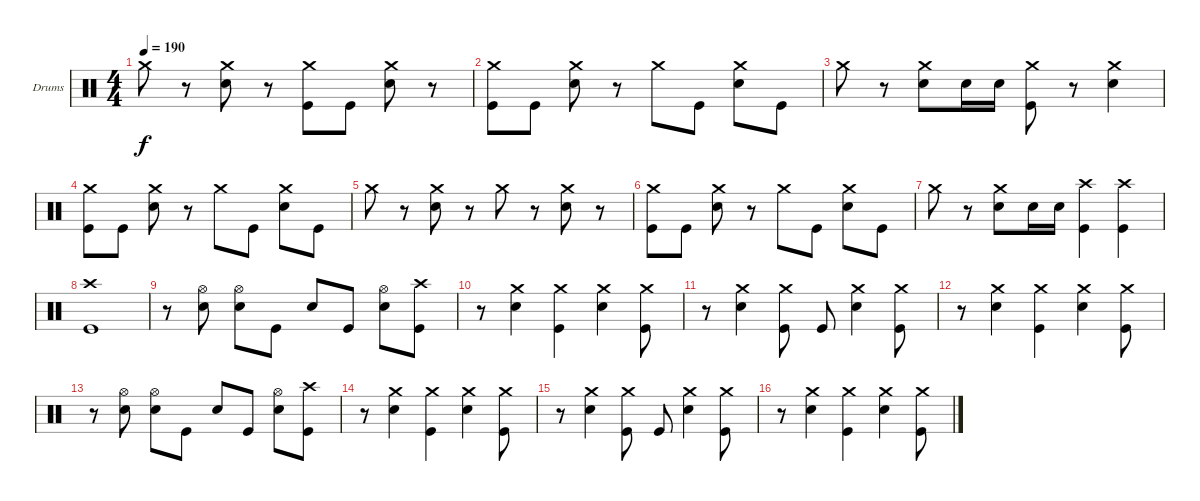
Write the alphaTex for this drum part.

\bracketExtendMode groupsimilarinstruments
\firstSystemTrackNameOrientation horizontal
\otherSystemsTrackNameOrientation horizontal
\track ("Drumkit" "Drums") {instrument percussion}
\staff {score}
\articulation defaults
\ts (4 4)
\tempo 190
\clef neutral
\scale
0.333333
\ks c "Crash medium (hit)".8{dy f}
r.8 ("Snare (hit) 2" "Crash medium (hit)").8 r.8 ("Crash medium (hit)" "Kick (hit)").8 "Kick (hit)".8 ("Snare (hit) 2" "Crash medium (hit)").8 r.8 |
\scale
0.333333 ("Kick (hit)" "Crash medium (hit)").8 "Kick (hit)".8 ("Snare (hit) 2" "Crash medium (hit)").8 r.8 "Crash medium (hit)".8 "Kick (hit)".8 ("Snare (hit) 2" "Crash medium (hit)").8 "Kick (hit)".8 |
\scale
0.333333 "Crash medium (hit)".8 r.8 ("Snare (hit) 2" "Crash medium (hit)").8 "Snare (hit) 2".16 "Snare (hit) 2".16 ("Crash medium (hit)" "Kick (hit)").8 r.8 ("Snare (hit) 2" "Crash medium (hit)").4 |
\scale
0.333333 ("Kick (hit)" "Crash medium (hit)").8 "Kick (hit)".8 ("Snare (hit) 2" "Crash medium (hit)").8 r.8 "Crash medium (hit)".8 "Kick (hit)".8 ("Snare (hit) 2" "Crash medium (hit)").8 "Kick (hit)".8 |
\scale
0.333333 "Crash medium (hit)".8 r.8 ("Snare (hit) 2" "Crash medium (hit)").8 r.8 "Crash medium (hit)".8 r.8 ("Snare (hit) 2" "Crash medium (hit)").8 r.8 |
\scale
0.333333 ("Kick (hit)" "Crash medium (hit)").8 "Kick (hit)".8 ("Snare (hit) 2" "Crash medium (hit)").8 r.8 "Crash medium (hit)".8 "Kick (hit)".8 ("Snare (hit) 2" "Crash medium (hit)").8 "Kick (hit)".8 |
\scale
0.333333 "Crash medium (hit)".8 r.8 ("Snare (hit) 2" "Crash medium (hit)").8 "Snare (hit) 2".16 "Snare (hit) 2".16 ("Kick (hit)" "Crash high (hit)").4 ("Kick (hit)" "Crash high (hit)").4 |
\scale
0.333333 ("Kick (hit)" "Crash high (hit)").1 |
\scale
0.333333 r.8 ("Snare (hit) 2" "Hi-Hat (open)").8 ("Snare (hit) 2" "Hi-Hat (open)").8 "Kick (hit)".8 "Snare (hit) 2".8 "Kick (hit)".8 ("Snare (hit) 2" "Hi-Hat (open)").8 ("Kick (hit)" "Crash high (hit)").8 |
r.8 ("Snare (hit) 2" "Crash medium (hit)").4 ("Kick (hit)" "Crash medium (hit)").4 ("Snare (hit) 2" "Crash medium (hit)").4 ("Kick (hit)" "Crash medium (hit)").8 |
r.8 ("Snare (hit) 2" "Crash medium (hit)").4 ("Kick (hit)" "Crash medium (hit)").8 "Kick (hit)".8 ("Snare (hit) 2" "Crash medium (hit)").4 ("Kick (hit)" "Crash medium (hit)").8 |
r.8 ("Snare (hit) 2" "Crash medium (hit)").4 ("Kick (hit)" "Crash medium (hit)").4 ("Snare (hit) 2" "Crash medium (hit)").4 ("Kick (hit)" "Crash medium (hit)").8 |
r.8 ("Snare (hit) 2" "Hi-Hat (open)").8 ("Snare (hit) 2" "Hi-Hat (open)").8 "Kick (hit)".8 "Snare (hit) 2".8 "Kick (hit)".8 ("Snare (hit) 2" "Hi-Hat (open)").8 ("Kick (hit)" "Crash high (hit)").8 |
r.8 ("Snare (hit) 2" "Crash medium (hit)").4 ("Kick (hit)" "Crash medium (hit)").4 ("Snare (hit) 2" "Crash medium (hit)").4 ("Kick (hit)" "Crash medium (hit)").8 |
r.8 ("Snare (hit) 2" "Crash medium (hit)").4 ("Kick (hit)" "Crash medium (hit)").8 "Kick (hit)".8 ("Snare (hit) 2" "Crash medium (hit)").4 ("Kick (hit)" "Crash medium (hit)").8 |
r.8 ("Snare (hit) 2" "Crash medium (hit)").4 ("Kick (hit)" "Crash medium (hit)").4 ("Snare (hit) 2" "Crash medium (hit)").4 ("Kick (hit)" "Crash medium (hit)").8
